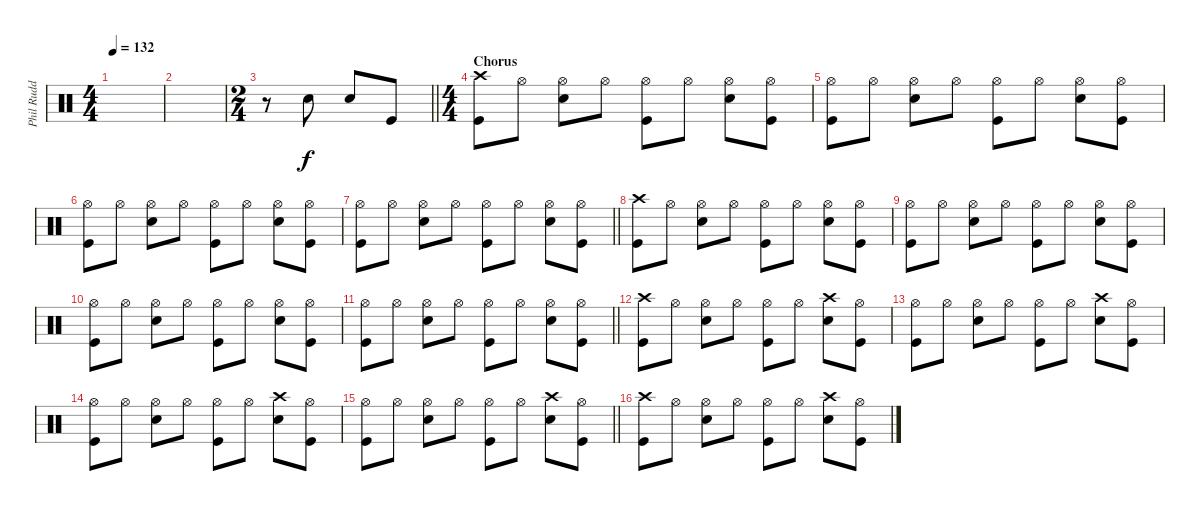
\track ("Phil Rudd" "Phil Rudd") {instrument percussion}
\staff {score}
\articulation defaults
\ts (4 4)
\tempo 132
\clef neutral
\ks c
|
|
\ts (2 4)
\barLineRight lightlight
r.8 "Snare (hit) 2".8 "Snare (hit) 2".8 "Kick (hit)".8 |
\ts (4 4)
\section ("" "Chorus")
("Crash high (hit)" "Kick (hit)").8 "Hi-Hat (open)".8 ("Hi-Hat (open)" "Snare (hit) 2").8 "Hi-Hat (open)".8 ("Hi-Hat (open)" "Kick (hit)").8 "Hi-Hat (open)".8 ("Hi-Hat (open)" "Snare (hit) 2").8 ("Hi-Hat (open)" "Kick (hit)").8 |
("Hi-Hat (open)" "Kick (hit)").8 "Hi-Hat (open)".8 ("Hi-Hat (open)" "Snare (hit) 2").8 "Hi-Hat (open)".8 ("Hi-Hat (open)" "Kick (hit)").8 "Hi-Hat (open)".8 ("Hi-Hat (open)" "Snare (hit) 2").8 ("Hi-Hat (open)" "Kick (hit)").8 |
("Hi-Hat (open)" "Kick (hit)").8 "Hi-Hat (open)".8 ("Hi-Hat (open)" "Snare (hit) 2").8 "Hi-Hat (open)".8 ("Hi-Hat (open)" "Kick (hit)").8 "Hi-Hat (open)".8 ("Hi-Hat (open)" "Snare (hit) 2").8 ("Hi-Hat (open)" "Kick (hit)").8 |
\barLineRight lightlight
("Hi-Hat (open)" "Kick (hit)").8 "Hi-Hat (open)".8 ("Hi-Hat (open)" "Snare (hit) 2").8 "Hi-Hat (open)".8 ("Hi-Hat (open)" "Kick (hit)").8 "Hi-Hat (open)".8 ("Hi-Hat (open)" "Snare (hit) 2").8 ("Hi-Hat (open)" "Kick (hit)").8 |
("Crash high (hit)" "Kick (hit)").8 "Hi-Hat (open)".8 ("Hi-Hat (open)" "Snare (hit) 2").8 "Hi-Hat (open)".8 ("Hi-Hat (open)" "Kick (hit)").8 "Hi-Hat (open)".8 ("Hi-Hat (open)" "Snare (hit) 2").8 ("Hi-Hat (open)" "Kick (hit)").8 |
("Hi-Hat (open)" "Kick (hit)").8 "Hi-Hat (open)".8 ("Hi-Hat (open)" "Snare (hit) 2").8 "Hi-Hat (open)".8 ("Hi-Hat (open)" "Kick (hit)").8 "Hi-Hat (open)".8 ("Hi-Hat (open)" "Snare (hit) 2").8 ("Hi-Hat (open)" "Kick (hit)").8 |
("Hi-Hat (open)" "Kick (hit)").8 "Hi-Hat (open)".8 ("Hi-Hat (open)" "Snare (hit) 2").8 "Hi-Hat (open)".8 ("Hi-Hat (open)" "Kick (hit)").8 "Hi-Hat (open)".8 ("Hi-Hat (open)" "Snare (hit) 2").8 ("Hi-Hat (open)" "Kick (hit)").8 |
\barLineRight lightlight
("Hi-Hat (open)" "Kick (hit)").8 "Hi-Hat (open)".8 ("Hi-Hat (open)" "Snare (hit) 2").8 "Hi-Hat (open)".8 ("Hi-Hat (open)" "Kick (hit)").8 "Hi-Hat (open)".8 ("Hi-Hat (open)" "Snare (hit) 2").8 ("Hi-Hat (open)" "Kick (hit)").8 |
("Crash high (hit)" "Kick (hit)").8 "Hi-Hat (open)".8 ("Hi-Hat (open)" "Snare (hit) 2").8 "Hi-Hat (open)".8 ("Hi-Hat (open)" "Kick (hit)").8 "Hi-Hat (open)".8 ("Crash high (hit)" "Snare (hit) 2").8 ("Hi-Hat (open)" "Kick (hit)").8 |
("Hi-Hat (open)" "Kick (hit)").8 "Hi-Hat (open)".8 ("Hi-Hat (open)" "Snare (hit) 2").8 "Hi-Hat (open)".8 ("Hi-Hat (open)" "Kick (hit)").8 "Hi-Hat (open)".8 ("Crash high (hit)" "Snare (hit) 2").8 ("Hi-Hat (open)" "Kick (hit)").8 |
("Hi-Hat (open)" "Kick (hit)").8 "Hi-Hat (open)".8 ("Hi-Hat (open)" "Snare (hit) 2").8 "Hi-Hat (open)".8 ("Hi-Hat (open)" "Kick (hit)").8 "Hi-Hat (open)".8 ("Crash high (hit)" "Snare (hit) 2").8 ("Hi-Hat (open)" "Kick (hit)").8 |
\barLineRight lightlight
("Hi-Hat (open)" "Kick (hit)").8 "Hi-Hat (open)".8 ("Hi-Hat (open)" "Snare (hit) 2").8 "Hi-Hat (open)".8 ("Hi-Hat (open)" "Kick (hit)").8 "Hi-Hat (open)".8 ("Crash high (hit)" "Snare (hit) 2").8 ("Hi-Hat (open)" "Kick (hit)").8 |
("Crash high (hit)" "Kick (hit)").8 "Hi-Hat (open)".8 ("Hi-Hat (open)" "Snare (hit) 2").8 "Hi-Hat (open)".8 ("Hi-Hat (open)" "Kick (hit)").8 "Hi-Hat (open)".8 ("Crash high (hit)" "Snare (hit) 2").8 ("Hi-Hat (open)" "Kick (hit)").8
